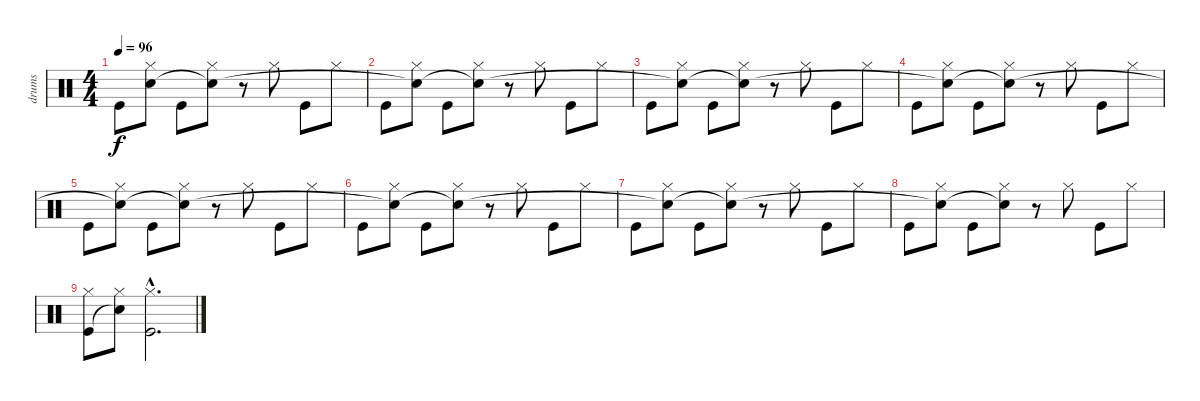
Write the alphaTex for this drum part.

\track ("drums" "drums") {instrument percussion}
\staff {score}
\articulation defaults
\ts (4 4)
\tempo 96
\clef neutral
\ks c "Kick (hit)".8{dy f}
("Hi-Hat (closed)" "Snare (hit)"{t}).8 "Kick (hit)".8 ("Hi-Hat (closed)" "Snare (hit)"{t}).8 r.8 "Hi-Hat (closed)".8 "Kick (hit)".8 "Hi-Hat (closed)".8 |
"Kick (hit)".8 ("Hi-Hat (closed)" "Snare (hit)"{t}).8 "Kick (hit)".8 ("Hi-Hat (closed)" "Snare (hit)"{t}).8 r.8 "Hi-Hat (closed)".8 "Kick (hit)".8 "Hi-Hat (closed)".8 |
"Kick (hit)".8 ("Hi-Hat (closed)" "Snare (hit)"{t}).8 "Kick (hit)".8 ("Hi-Hat (closed)" "Snare (hit)"{t}).8 r.8 "Hi-Hat (closed)".8 "Kick (hit)".8 "Hi-Hat (closed)".8 |
"Kick (hit)".8 ("Hi-Hat (closed)" "Snare (hit)"{t}).8 "Kick (hit)".8 ("Hi-Hat (closed)" "Snare (hit)"{t}).8 r.8 "Hi-Hat (closed)".8 "Kick (hit)".8 "Hi-Hat (closed)".8 |
"Kick (hit)".8 ("Hi-Hat (closed)" "Snare (hit)"{t}).8 "Kick (hit)".8 ("Hi-Hat (closed)" "Snare (hit)"{t}).8 r.8 "Hi-Hat (closed)".8 "Kick (hit)".8 "Hi-Hat (closed)".8 |
"Kick (hit)".8 ("Hi-Hat (closed)" "Snare (hit)"{t}).8 "Kick (hit)".8 ("Hi-Hat (closed)" "Snare (hit)"{t}).8 r.8 "Hi-Hat (closed)".8 "Kick (hit)".8 "Hi-Hat (closed)".8 |
"Kick (hit)".8 ("Hi-Hat (closed)" "Snare (hit)"{t}).8 "Kick (hit)".8 ("Hi-Hat (closed)" "Snare (hit)"{t}).8 r.8 "Hi-Hat (closed)".8 "Kick (hit)".8 "Hi-Hat (closed)".8 |
"Kick (hit)".8 ("Hi-Hat (closed)" "Snare (hit)"{t}).8 "Kick (hit)".8 ("Hi-Hat (closed)" "Snare (hit)"{t}).8 r.8 "Hi-Hat (closed)".8 "Kick (hit)".8 "Hi-Hat (closed)".8 |
("Hi-Hat (closed)" "Kick (hit)").8 ("Hi-Hat (closed)" "Snare (hit)"{t}).8 ("Hi-Hat (closed)"{hac} "Kick (hit)"{hac}).2{d}
